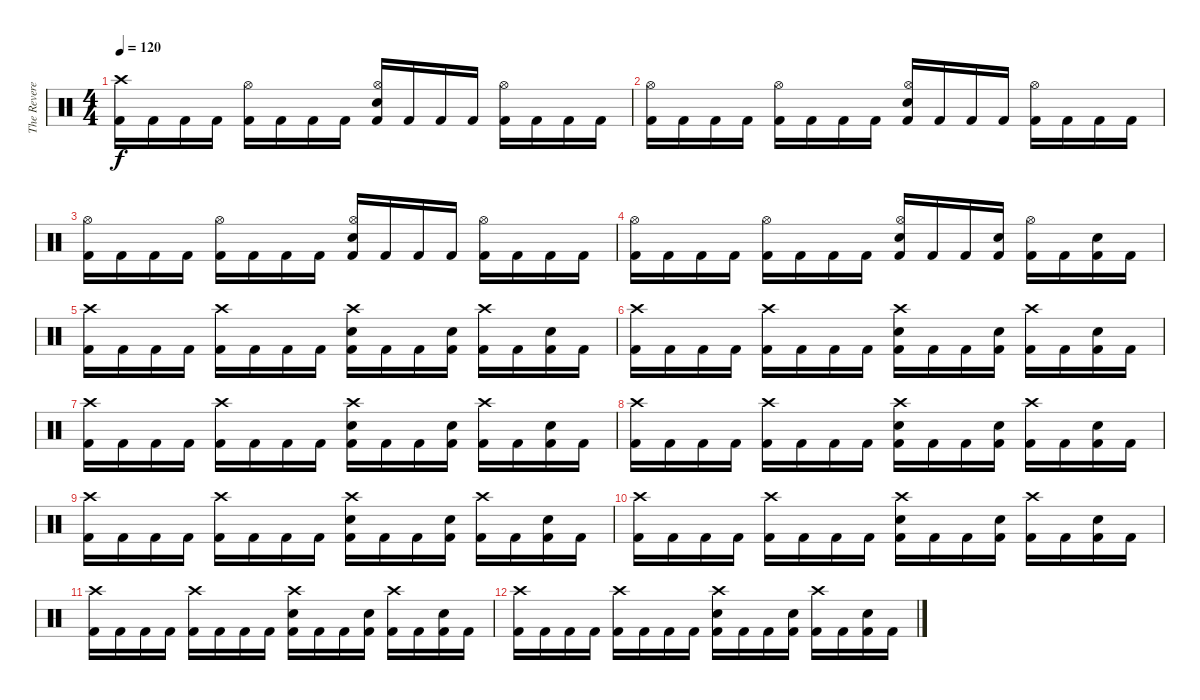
\track ("The Reverend" "The Revere") {instrument percussion}
\staff {score}
\articulation defaults
\ts (4 4)
\tempo 120
\clef neutral
\ks c
("Crash high (hit)" "Kick (hit) 2").16{dy f} "Kick (hit) 2".16 "Kick (hit) 2".16 "Kick (hit) 2".16 ("Hi-Hat (open)" "Kick (hit) 2").16 "Kick (hit) 2".16 "Kick (hit) 2".16 "Kick (hit) 2".16 ("Hi-Hat (open)" "Snare (hit) 2" "Kick (hit) 2").16 "Kick (hit) 2".16 "Kick (hit) 2".16 "Kick (hit) 2".16 ("Hi-Hat (open)" "Kick (hit) 2").16 "Kick (hit) 2".16 "Kick (hit) 2".16 "Kick (hit) 2".16 |
("Hi-Hat (open)" "Kick (hit) 2").16 "Kick (hit) 2".16 "Kick (hit) 2".16 "Kick (hit) 2".16 ("Hi-Hat (open)" "Kick (hit) 2").16 "Kick (hit) 2".16 "Kick (hit) 2".16 "Kick (hit) 2".16 ("Hi-Hat (open)" "Snare (hit) 2" "Kick (hit) 2").16 "Kick (hit) 2".16 "Kick (hit) 2".16 "Kick (hit) 2".16 ("Hi-Hat (open)" "Kick (hit) 2").16 "Kick (hit) 2".16 "Kick (hit) 2".16 "Kick (hit) 2".16 |
("Hi-Hat (open)" "Kick (hit) 2").16 "Kick (hit) 2".16 "Kick (hit) 2".16 "Kick (hit) 2".16 ("Hi-Hat (open)" "Kick (hit) 2").16 "Kick (hit) 2".16 "Kick (hit) 2".16 "Kick (hit) 2".16 ("Hi-Hat (open)" "Snare (hit) 2" "Kick (hit) 2").16 "Kick (hit) 2".16 "Kick (hit) 2".16 "Kick (hit) 2".16 ("Hi-Hat (open)" "Kick (hit) 2").16 "Kick (hit) 2".16 "Kick (hit) 2".16 "Kick (hit) 2".16 |
("Hi-Hat (open)" "Kick (hit) 2").16 "Kick (hit) 2".16 "Kick (hit) 2".16 "Kick (hit) 2".16 ("Hi-Hat (open)" "Kick (hit) 2").16 "Kick (hit) 2".16 "Kick (hit) 2".16 "Kick (hit) 2".16 ("Hi-Hat (open)" "Snare (hit) 2" "Kick (hit) 2").16 "Kick (hit) 2".16 "Kick (hit) 2".16 ("Snare (hit) 2" "Kick (hit) 2").16 ("Hi-Hat (open)" "Kick (hit) 2").16 "Kick (hit) 2".16 ("Snare (hit) 2" "Kick (hit) 2").16 "Kick (hit) 2".16 |
("Crash high (hit)" "Kick (hit) 2").16{volume 14} "Kick (hit) 2".16 "Kick (hit) 2".16 "Kick (hit) 2".16 ("Crash high (hit)" "Kick (hit) 2").16 "Kick (hit) 2".16 "Kick (hit) 2".16 "Kick (hit) 2".16 ("Crash high (hit)" "Snare (hit) 2" "Kick (hit) 2").16 "Kick (hit) 2".16 "Kick (hit) 2".16 ("Snare (hit) 2" "Kick (hit) 2").16 ("Crash high (hit)" "Kick (hit) 2").16 "Kick (hit) 2".16 ("Snare (hit) 2" "Kick (hit) 2").16 "Kick (hit) 2".16 |
("Crash high (hit)" "Kick (hit) 2").16{volume 12} "Kick (hit) 2".16 "Kick (hit) 2".16 "Kick (hit) 2".16 ("Crash high (hit)" "Kick (hit) 2").16 "Kick (hit) 2".16 "Kick (hit) 2".16 "Kick (hit) 2".16 ("Crash high (hit)" "Snare (hit) 2" "Kick (hit) 2").16 "Kick (hit) 2".16 "Kick (hit) 2".16 ("Snare (hit) 2" "Kick (hit) 2").16 ("Crash high (hit)" "Kick (hit) 2").16 "Kick (hit) 2".16 ("Snare (hit) 2" "Kick (hit) 2").16 "Kick (hit) 2".16 |
("Crash high (hit)" "Kick (hit) 2").16{volume 10} "Kick (hit) 2".16 "Kick (hit) 2".16 "Kick (hit) 2".16 ("Crash high (hit)" "Kick (hit) 2").16 "Kick (hit) 2".16 "Kick (hit) 2".16 "Kick (hit) 2".16 ("Crash high (hit)" "Snare (hit) 2" "Kick (hit) 2").16 "Kick (hit) 2".16 "Kick (hit) 2".16 ("Snare (hit) 2" "Kick (hit) 2").16 ("Crash high (hit)" "Kick (hit) 2").16 "Kick (hit) 2".16 ("Snare (hit) 2" "Kick (hit) 2").16 "Kick (hit) 2".16 |
("Crash high (hit)" "Kick (hit) 2").16{volume 8} "Kick (hit) 2".16 "Kick (hit) 2".16 "Kick (hit) 2".16 ("Crash high (hit)" "Kick (hit) 2").16 "Kick (hit) 2".16 "Kick (hit) 2".16 "Kick (hit) 2".16 ("Crash high (hit)" "Snare (hit) 2" "Kick (hit) 2").16 "Kick (hit) 2".16 "Kick (hit) 2".16 ("Snare (hit) 2" "Kick (hit) 2").16 ("Crash high (hit)" "Kick (hit) 2").16 "Kick (hit) 2".16 ("Snare (hit) 2" "Kick (hit) 2").16 "Kick (hit) 2".16 |
("Crash high (hit)" "Kick (hit) 2").16{volume 6} "Kick (hit) 2".16 "Kick (hit) 2".16 "Kick (hit) 2".16 ("Crash high (hit)" "Kick (hit) 2").16 "Kick (hit) 2".16 "Kick (hit) 2".16 "Kick (hit) 2".16 ("Crash high (hit)" "Snare (hit) 2" "Kick (hit) 2").16 "Kick (hit) 2".16 "Kick (hit) 2".16 ("Snare (hit) 2" "Kick (hit) 2").16 ("Crash high (hit)" "Kick (hit) 2").16 "Kick (hit) 2".16 ("Snare (hit) 2" "Kick (hit) 2").16 "Kick (hit) 2".16 |
("Crash high (hit)" "Kick (hit) 2").16{volume 4} "Kick (hit) 2".16 "Kick (hit) 2".16 "Kick (hit) 2".16 ("Crash high (hit)" "Kick (hit) 2").16 "Kick (hit) 2".16 "Kick (hit) 2".16 "Kick (hit) 2".16 ("Crash high (hit)" "Snare (hit) 2" "Kick (hit) 2").16 "Kick (hit) 2".16 "Kick (hit) 2".16 ("Snare (hit) 2" "Kick (hit) 2").16 ("Crash high (hit)" "Kick (hit) 2").16 "Kick (hit) 2".16 ("Snare (hit) 2" "Kick (hit) 2").16 "Kick (hit) 2".16 |
("Crash high (hit)" "Kick (hit) 2").16{volume 2} "Kick (hit) 2".16 "Kick (hit) 2".16 "Kick (hit) 2".16 ("Crash high (hit)" "Kick (hit) 2").16 "Kick (hit) 2".16 "Kick (hit) 2".16 "Kick (hit) 2".16 ("Crash high (hit)" "Snare (hit) 2" "Kick (hit) 2").16 "Kick (hit) 2".16 "Kick (hit) 2".16 ("Snare (hit) 2" "Kick (hit) 2").16 ("Crash high (hit)" "Kick (hit) 2").16 "Kick (hit) 2".16 ("Snare (hit) 2" "Kick (hit) 2").16 "Kick (hit) 2".16 |
("Crash high (hit)" "Kick (hit) 2").16{volume 0} "Kick (hit) 2".16 "Kick (hit) 2".16 "Kick (hit) 2".16 ("Crash high (hit)" "Kick (hit) 2").16 "Kick (hit) 2".16 "Kick (hit) 2".16 "Kick (hit) 2".16 ("Crash high (hit)" "Snare (hit) 2" "Kick (hit) 2").16 "Kick (hit) 2".16 "Kick (hit) 2".16 ("Snare (hit) 2" "Kick (hit) 2").16 ("Crash high (hit)" "Kick (hit) 2").16 "Kick (hit) 2".16 ("Snare (hit) 2" "Kick (hit) 2").16 "Kick (hit) 2".16
